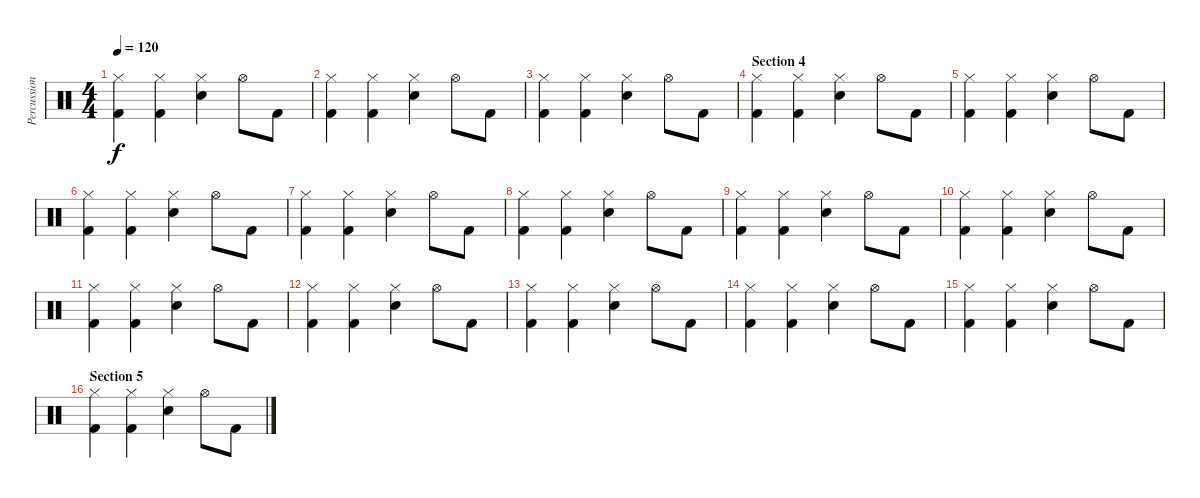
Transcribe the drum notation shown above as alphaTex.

\track ("Percussions" "Percussion") {instrument percussion}
\staff {score}
\articulation defaults
\ts (4 4)
\tempo 120
\clef neutral
\ks c
("Hi-Hat (closed)" "Kick (hit) 2").4{dy f} ("Hi-Hat (closed)" "Kick (hit) 2").4 ("Hi-Hat (closed)" "Snare (hit) 2").4 "Hi-Hat (open)".8 "Kick (hit) 2".8 |
("Hi-Hat (closed)" "Kick (hit) 2").4 ("Hi-Hat (closed)" "Kick (hit) 2").4 ("Hi-Hat (closed)" "Snare (hit) 2").4 "Hi-Hat (open)".8 "Kick (hit) 2".8 |
("Hi-Hat (closed)" "Kick (hit) 2").4 ("Hi-Hat (closed)" "Kick (hit) 2").4 ("Hi-Hat (closed)" "Snare (hit) 2").4 "Hi-Hat (open)".8 "Kick (hit) 2".8 |
\section ("" "Section 4")
("Hi-Hat (closed)" "Kick (hit) 2").4 ("Hi-Hat (closed)" "Kick (hit) 2").4 ("Hi-Hat (closed)" "Snare (hit) 2").4 "Hi-Hat (open)".8 "Kick (hit) 2".8 |
("Hi-Hat (closed)" "Kick (hit) 2").4 ("Hi-Hat (closed)" "Kick (hit) 2").4 ("Hi-Hat (closed)" "Snare (hit) 2").4 "Hi-Hat (open)".8 "Kick (hit) 2".8 |
("Hi-Hat (closed)" "Kick (hit) 2").4 ("Hi-Hat (closed)" "Kick (hit) 2").4 ("Hi-Hat (closed)" "Snare (hit) 2").4 "Hi-Hat (open)".8 "Kick (hit) 2".8 |
("Hi-Hat (closed)" "Kick (hit) 2").4 ("Hi-Hat (closed)" "Kick (hit) 2").4 ("Hi-Hat (closed)" "Snare (hit) 2").4 "Hi-Hat (open)".8 "Kick (hit) 2".8 |
("Hi-Hat (closed)" "Kick (hit) 2").4 ("Hi-Hat (closed)" "Kick (hit) 2").4 ("Hi-Hat (closed)" "Snare (hit) 2").4 "Hi-Hat (open)".8 "Kick (hit) 2".8 |
("Hi-Hat (closed)" "Kick (hit) 2").4 ("Hi-Hat (closed)" "Kick (hit) 2").4 ("Hi-Hat (closed)" "Snare (hit) 2").4 "Hi-Hat (open)".8 "Kick (hit) 2".8 |
("Hi-Hat (closed)" "Kick (hit) 2").4 ("Hi-Hat (closed)" "Kick (hit) 2").4 ("Hi-Hat (closed)" "Snare (hit) 2").4 "Hi-Hat (open)".8 "Kick (hit) 2".8 |
("Hi-Hat (closed)" "Kick (hit) 2").4 ("Hi-Hat (closed)" "Kick (hit) 2").4 ("Hi-Hat (closed)" "Snare (hit) 2").4 "Hi-Hat (open)".8 "Kick (hit) 2".8 |
("Hi-Hat (closed)" "Kick (hit) 2").4 ("Hi-Hat (closed)" "Kick (hit) 2").4 ("Hi-Hat (closed)" "Snare (hit) 2").4 "Hi-Hat (open)".8 "Kick (hit) 2".8 |
("Hi-Hat (closed)" "Kick (hit) 2").4 ("Hi-Hat (closed)" "Kick (hit) 2").4 ("Hi-Hat (closed)" "Snare (hit) 2").4 "Hi-Hat (open)".8 "Kick (hit) 2".8 |
("Hi-Hat (closed)" "Kick (hit) 2").4 ("Hi-Hat (closed)" "Kick (hit) 2").4 ("Hi-Hat (closed)" "Snare (hit) 2").4 "Hi-Hat (open)".8 "Kick (hit) 2".8 |
("Hi-Hat (closed)" "Kick (hit) 2").4 ("Hi-Hat (closed)" "Kick (hit) 2").4 ("Hi-Hat (closed)" "Snare (hit) 2").4 "Hi-Hat (open)".8 "Kick (hit) 2".8 |
\section ("" "Section 5")
("Hi-Hat (closed)" "Kick (hit) 2").4 ("Hi-Hat (closed)" "Kick (hit) 2").4 ("Hi-Hat (closed)" "Snare (hit) 2").4 "Hi-Hat (open)".8 "Kick (hit) 2".8
